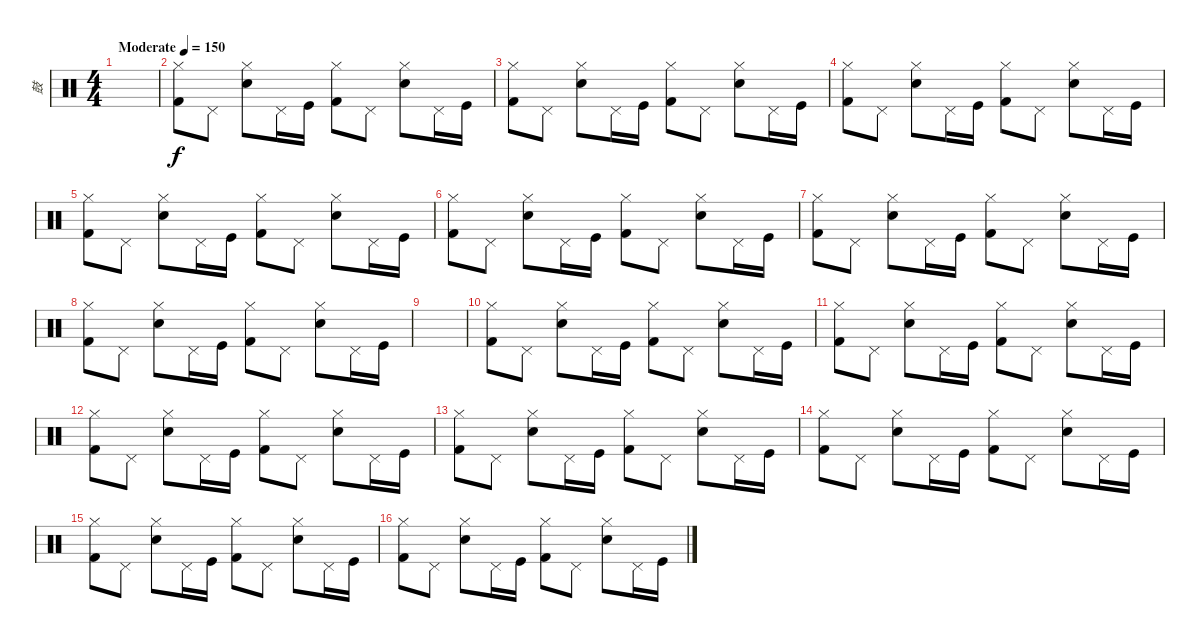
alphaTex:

\track ("鼓" "鼓") {instrument percussion}
\staff {score}
\articulation defaults
\ts (4 4)
\tempo (150 "Moderate")
\clef neutral
\ks c
|
("Hi-Hat (closed)" "Kick (hit) 2").8 "Pedal Hi-Hat (hit)".8 ("Hi-Hat (closed)" "Electric Snare (hit)").8 "Pedal Hi-Hat (hit)".16 "Kick (hit)".16 ("Hi-Hat (closed)" "Kick (hit) 2").8 "Pedal Hi-Hat (hit)".8 ("Hi-Hat (closed)" "Electric Snare (hit)").8 "Pedal Hi-Hat (hit)".16 "Kick (hit)".16 |
("Hi-Hat (closed)" "Kick (hit) 2").8 "Pedal Hi-Hat (hit)".8 ("Hi-Hat (closed)" "Electric Snare (hit)").8 "Pedal Hi-Hat (hit)".16 "Kick (hit)".16 ("Hi-Hat (closed)" "Kick (hit) 2").8 "Pedal Hi-Hat (hit)".8 ("Hi-Hat (closed)" "Electric Snare (hit)").8 "Pedal Hi-Hat (hit)".16 "Kick (hit)".16 |
("Hi-Hat (closed)" "Kick (hit) 2").8 "Pedal Hi-Hat (hit)".8 ("Hi-Hat (closed)" "Electric Snare (hit)").8 "Pedal Hi-Hat (hit)".16 "Kick (hit)".16 ("Hi-Hat (closed)" "Kick (hit) 2").8 "Pedal Hi-Hat (hit)".8 ("Hi-Hat (closed)" "Electric Snare (hit)").8 "Pedal Hi-Hat (hit)".16 "Kick (hit)".16 |
("Hi-Hat (closed)" "Kick (hit) 2").8 "Pedal Hi-Hat (hit)".8 ("Hi-Hat (closed)" "Electric Snare (hit)").8 "Pedal Hi-Hat (hit)".16 "Kick (hit)".16 ("Hi-Hat (closed)" "Kick (hit) 2").8 "Pedal Hi-Hat (hit)".8 ("Hi-Hat (closed)" "Electric Snare (hit)").8 "Pedal Hi-Hat (hit)".16 "Kick (hit)".16 |
("Hi-Hat (closed)" "Kick (hit) 2").8 "Pedal Hi-Hat (hit)".8 ("Hi-Hat (closed)" "Electric Snare (hit)").8 "Pedal Hi-Hat (hit)".16 "Kick (hit)".16 ("Hi-Hat (closed)" "Kick (hit) 2").8 "Pedal Hi-Hat (hit)".8 ("Hi-Hat (closed)" "Electric Snare (hit)").8 "Pedal Hi-Hat (hit)".16 "Kick (hit)".16 |
("Hi-Hat (closed)" "Kick (hit) 2").8 "Pedal Hi-Hat (hit)".8 ("Hi-Hat (closed)" "Electric Snare (hit)").8 "Pedal Hi-Hat (hit)".16 "Kick (hit)".16 ("Hi-Hat (closed)" "Kick (hit) 2").8 "Pedal Hi-Hat (hit)".8 ("Hi-Hat (closed)" "Electric Snare (hit)").8 "Pedal Hi-Hat (hit)".16 "Kick (hit)".16 |
("Hi-Hat (closed)" "Kick (hit) 2").8 "Pedal Hi-Hat (hit)".8 ("Hi-Hat (closed)" "Electric Snare (hit)").8 "Pedal Hi-Hat (hit)".16 "Kick (hit)".16 ("Hi-Hat (closed)" "Kick (hit) 2").8 "Pedal Hi-Hat (hit)".8 ("Hi-Hat (closed)" "Electric Snare (hit)").8 "Pedal Hi-Hat (hit)".16 "Kick (hit)".16 |
|
("Hi-Hat (closed)" "Kick (hit) 2").8 "Pedal Hi-Hat (hit)".8 ("Hi-Hat (closed)" "Electric Snare (hit)").8 "Pedal Hi-Hat (hit)".16 "Kick (hit)".16 ("Hi-Hat (closed)" "Kick (hit) 2").8 "Pedal Hi-Hat (hit)".8 ("Hi-Hat (closed)" "Electric Snare (hit)").8 "Pedal Hi-Hat (hit)".16 "Kick (hit)".16 |
("Hi-Hat (closed)" "Kick (hit) 2").8 "Pedal Hi-Hat (hit)".8 ("Hi-Hat (closed)" "Electric Snare (hit)").8 "Pedal Hi-Hat (hit)".16 "Kick (hit)".16 ("Hi-Hat (closed)" "Kick (hit) 2").8 "Pedal Hi-Hat (hit)".8 ("Hi-Hat (closed)" "Electric Snare (hit)").8 "Pedal Hi-Hat (hit)".16 "Kick (hit)".16 |
("Hi-Hat (closed)" "Kick (hit) 2").8 "Pedal Hi-Hat (hit)".8 ("Hi-Hat (closed)" "Electric Snare (hit)").8 "Pedal Hi-Hat (hit)".16 "Kick (hit)".16 ("Hi-Hat (closed)" "Kick (hit) 2").8 "Pedal Hi-Hat (hit)".8 ("Hi-Hat (closed)" "Electric Snare (hit)").8 "Pedal Hi-Hat (hit)".16 "Kick (hit)".16 |
("Hi-Hat (closed)" "Kick (hit) 2").8 "Pedal Hi-Hat (hit)".8 ("Hi-Hat (closed)" "Electric Snare (hit)").8 "Pedal Hi-Hat (hit)".16 "Kick (hit)".16 ("Hi-Hat (closed)" "Kick (hit) 2").8 "Pedal Hi-Hat (hit)".8 ("Hi-Hat (closed)" "Electric Snare (hit)").8 "Pedal Hi-Hat (hit)".16 "Kick (hit)".16 |
("Hi-Hat (closed)" "Kick (hit) 2").8 "Pedal Hi-Hat (hit)".8 ("Hi-Hat (closed)" "Electric Snare (hit)").8 "Pedal Hi-Hat (hit)".16 "Kick (hit)".16 ("Hi-Hat (closed)" "Kick (hit) 2").8 "Pedal Hi-Hat (hit)".8 ("Hi-Hat (closed)" "Electric Snare (hit)").8 "Pedal Hi-Hat (hit)".16 "Kick (hit)".16 |
("Hi-Hat (closed)" "Kick (hit) 2").8 "Pedal Hi-Hat (hit)".8 ("Hi-Hat (closed)" "Electric Snare (hit)").8 "Pedal Hi-Hat (hit)".16 "Kick (hit)".16 ("Hi-Hat (closed)" "Kick (hit) 2").8 "Pedal Hi-Hat (hit)".8 ("Hi-Hat (closed)" "Electric Snare (hit)").8 "Pedal Hi-Hat (hit)".16 "Kick (hit)".16 |
("Hi-Hat (closed)" "Kick (hit) 2").8 "Pedal Hi-Hat (hit)".8 ("Hi-Hat (closed)" "Electric Snare (hit)").8 "Pedal Hi-Hat (hit)".16 "Kick (hit)".16 ("Hi-Hat (closed)" "Kick (hit) 2").8 "Pedal Hi-Hat (hit)".8 ("Hi-Hat (closed)" "Electric Snare (hit)").8 "Pedal Hi-Hat (hit)".16 "Kick (hit)".16
